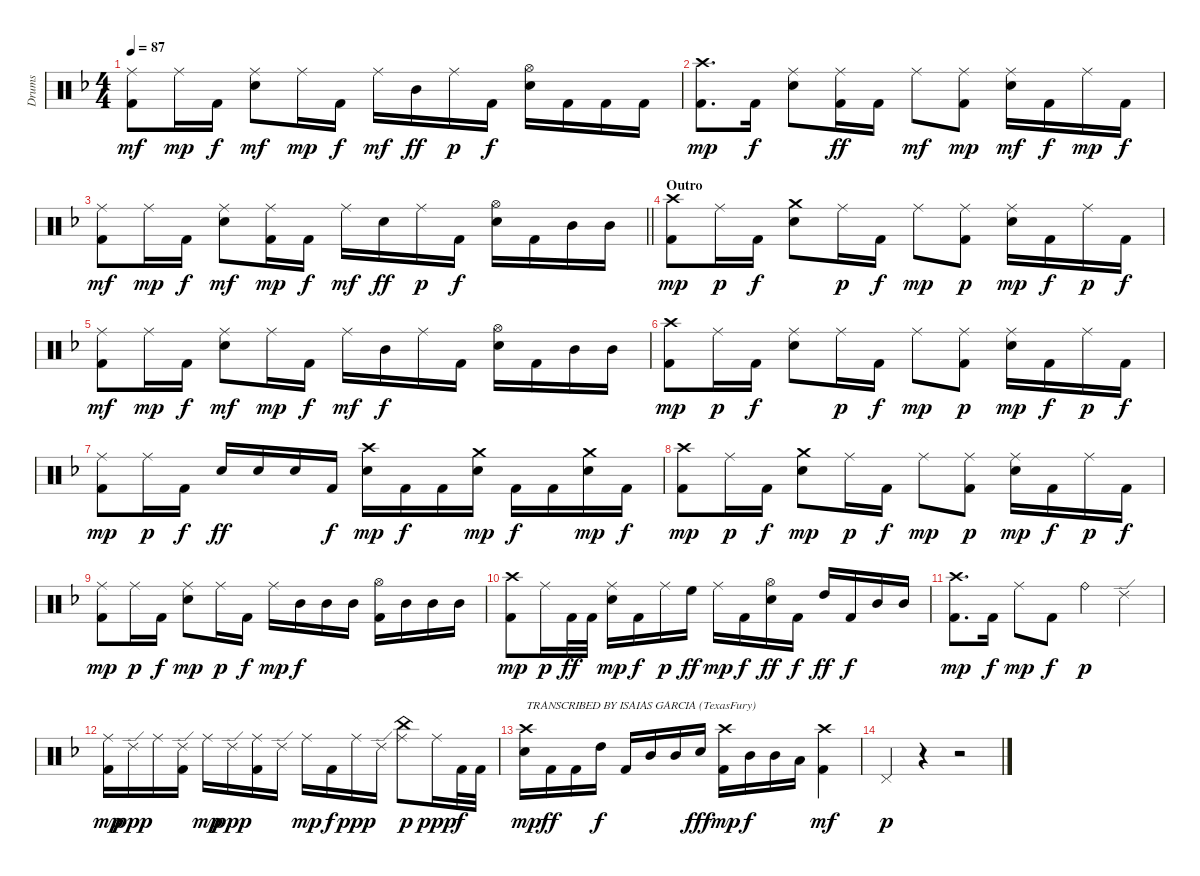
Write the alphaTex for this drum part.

\track ("Drums" "Drums") {instrument percussion}
\staff {score}
\articulation defaults
\ts (4 4)
\tempo 87
\clef neutral
\ks dminor
("Ride (middle)" "Kick (hit) 2").8{dy mf} "Ride (middle)".16{dy mp} "Kick (hit) 2".16{dy f} ("Electric Snare (hit)" "Ride (middle)").8{dy mf} "Ride (middle)".16{dy mp} "Kick (hit) 2".16{dy f} "Ride (middle)".16{dy mf} "Mid Tom (hit)".16{dy ff} "Ride (middle)".16{dy p} "Kick (hit) 2".16{dy f} ("Hi-Hat (open)" "Electric Snare (hit)").16 "Kick (hit) 2".16 "Kick (hit) 2".16 "Kick (hit) 2".16 |
("Crash high (hit)" "Kick (hit) 2").8{d dy mp} "Kick (hit) 2".16{dy f} ("Ride (middle)" "Electric Snare (hit)").8 ("Kick (hit) 2" "Ride (middle)").16{dy ff} "Kick (hit) 2".16 "Ride (middle)".8{dy mf} ("Ride (middle)" "Kick (hit) 2").8{dy mp} ("Ride (middle)" "Electric Snare (hit)").16{dy mf} "Kick (hit) 2".16{dy f} "Ride (middle)".16{dy mp} "Kick (hit) 2".16{dy f} |
\barLineRight lightlight
("Ride (middle)" "Kick (hit) 2").8{dy mf} "Ride (middle)".16{dy mp} "Kick (hit) 2".16{dy f} ("Electric Snare (hit)" "Ride (middle)").8{dy mf} ("Ride (middle)" "Kick (hit) 2").16{dy mp} "Kick (hit) 2".16{dy f} "Ride (middle)".16{dy mf} "Electric Snare (hit)".16{dy ff} "Ride (middle)".16{dy p} "Kick (hit) 2".16{dy f} ("Hi-Hat (open)" "Electric Snare (hit)").16 "Kick (hit) 2".16 "Mid Tom (hit)".16 "Mid Tom (hit)".16 |
\section ("" "Outro")
("Crash high (hit)" "Kick (hit) 2").8{dy mp} "Ride (middle)".16{dy p} "Kick (hit) 2".16{dy f} ("Electric Snare (hit)" "Crash medium (hit)").8 "Ride (middle)".16{dy p} "Kick (hit) 2".16{dy f} "Ride (middle)".8{dy mp} ("Ride (middle)" "Kick (hit) 2").8{dy p} ("Electric Snare (hit)" "Ride (middle)").16{dy mp} "Kick (hit) 2".16{dy f} "Ride (middle)".16{dy p} "Kick (hit) 2".16{dy f} |
("Ride (middle)" "Kick (hit) 2").8{dy mf} "Ride (middle)".16{dy mp} "Kick (hit) 2".16{dy f} ("Electric Snare (hit)" "Ride (middle)").8{dy mf} "Ride (middle)".16{dy mp} "Kick (hit) 2".16{dy f} "Ride (middle)".16{dy mf} "Mid Tom (hit)".16{dy f} "Ride (middle)".16 "Kick (hit) 2".16 ("Hi-Hat (open)" "Electric Snare (hit)").16 "Kick (hit) 2".16 "Mid Tom (hit)".16 "Mid Tom (hit)".16 |
("Crash high (hit)" "Kick (hit) 2").8{dy mp} "Ride (middle)".16{dy p} "Kick (hit) 2".16{dy f} ("Electric Snare (hit)" "Ride (middle)").8 "Ride (middle)".16{dy p} "Kick (hit) 2".16{dy f} "Ride (middle)".8{dy mp} ("Ride (middle)" "Kick (hit) 2").8{dy p} ("Electric Snare (hit)" "Ride (middle)").16{dy mp} "Kick (hit) 2".16{dy f} "Ride (middle)".16{dy p} "Kick (hit) 2".16{dy f} |
("Ride (middle)" "Kick (hit) 2").8{dy mp} "Ride (middle)".16{dy p} "Kick (hit) 2".16{dy f} "Electric Snare (hit)".16{dy ff} "Electric Snare (hit)".16 "Electric Snare (hit)".16 "Kick (hit) 2".16{dy f} ("Electric Snare (hit)" "Crash high (hit)").16{dy mp} "Kick (hit) 2".16{dy f} "Kick (hit) 2".16 ("Electric Snare (hit)" "Crash medium (hit)").16{dy mp} "Kick (hit) 2".16{dy f} "Kick (hit) 2".16 ("Electric Snare (hit)" "Crash medium (hit)").16{dy mp} "Kick (hit) 2".16{dy f} |
("Crash high (hit)" "Kick (hit) 2").8{dy mp} "Ride (middle)".16{dy p} "Kick (hit) 2".16{dy f} ("Electric Snare (hit)" "Crash medium (hit)").8{dy mp} "Ride (middle)".16{dy p} "Kick (hit) 2".16{dy f} "Ride (middle)".8{dy mp} ("Ride (middle)" "Kick (hit) 2").8{dy p} ("Electric Snare (hit)" "Ride (middle)").16{dy mp} "Kick (hit) 2".16{dy f} "Ride (middle)".16{dy p} "Kick (hit) 2".16{dy f} |
("Ride (middle)" "Kick (hit) 2").8{dy mp} "Ride (middle)".16{dy p} "Kick (hit) 2".16{dy f} ("Electric Snare (hit)" "Ride (middle)").8{dy mp} "Ride (middle)".16{dy p} "Kick (hit) 2".16{dy f} "Ride (middle)".16{dy mp} "Mid Tom (hit)".16{dy f} "Mid Tom (hit)".16 "Mid Tom (hit)".16 ("Hi-Hat (open)" "Kick (hit) 2").16 "Mid Tom (hit)".16 "Mid Tom (hit)".16 "Mid Tom (hit)".16 |
("Crash high (hit)" "Kick (hit) 2").8{dy mp} "Ride (middle)".16{dy p} "Kick (hit) 2".32{dy ff} "Kick (hit) 2".32 ("Electric Snare (hit)" "Ride (middle)").16{dy mp} "Kick (hit) 2".16{dy f} "Ride (middle)".16{dy p} "High Floor Tom (hit)".16{dy ff} "Ride (middle)".16{dy mp} "Kick (hit) 2".16{dy f} ("Electric Snare (hit)" "Hi-Hat (open)").16{dy ff} "Kick (hit) 2".16{dy f} "High Tom (hit)".16{dy ff} "Kick (hit) 2".16{dy f} "Mid Tom (hit)".16 "Mid Tom (hit)".16 |
("Kick (hit) 2" "Crash high (hit)").8{d dy mp} "Kick (hit) 2".16{dy f} "Ride (middle)".8{dy mp} "Kick (hit) 2".8{dy f} "Ride (bell)".4{dy p} "Ride (edge) 2".4 |
("Ride (middle)" "Kick (hit) 2").16{dy mp} "Ride (edge) 2".16{dy ppp} "Ride (middle)".16 ("Ride (edge) 2" "Kick (hit) 2").16 "Ride (middle)".16{dy mp} "Ride (edge) 2".16{dy ppp} ("Ride (middle)" "Kick (hit) 2").16 "Ride (edge) 2".16 "Ride (middle)".16{dy mp} "Kick (hit) 2".16{dy f} "Ride (middle)".16{dy ppp} "Ride (edge) 2".16 ("Ride (middle)" "China (hit)").8{dy p} "Ride (middle)".16{dy ppp} "Kick (hit) 2".32{dy f} "Kick (hit) 2".32 |
("Electric Snare (hit)" "Crash high (hit)").16{txt "TRANSCRIBED BY ISAIAS GARCIA (TexasFury)" dy mp} "Kick (hit) 2".16{dy ff} "Kick (hit) 2".16 "High Tom (hit)".16{dy f} "Kick (hit) 2".16 "Mid Tom (hit)".16 "Mid Tom (hit)".16 "Electric Snare (hit)".16{dy fff} ("Kick (hit) 2" "Crash high (hit)").16{dy mp} "Mid Tom (hit)".16{dy f} "Mid Tom (hit)".16 "Low Tom (hit)".16 ("Kick (hit) 2" "Crash high (hit)").4{dy mf} |
"Pedal Hi-Hat (hit)".4{dy p} r.4 r.2
